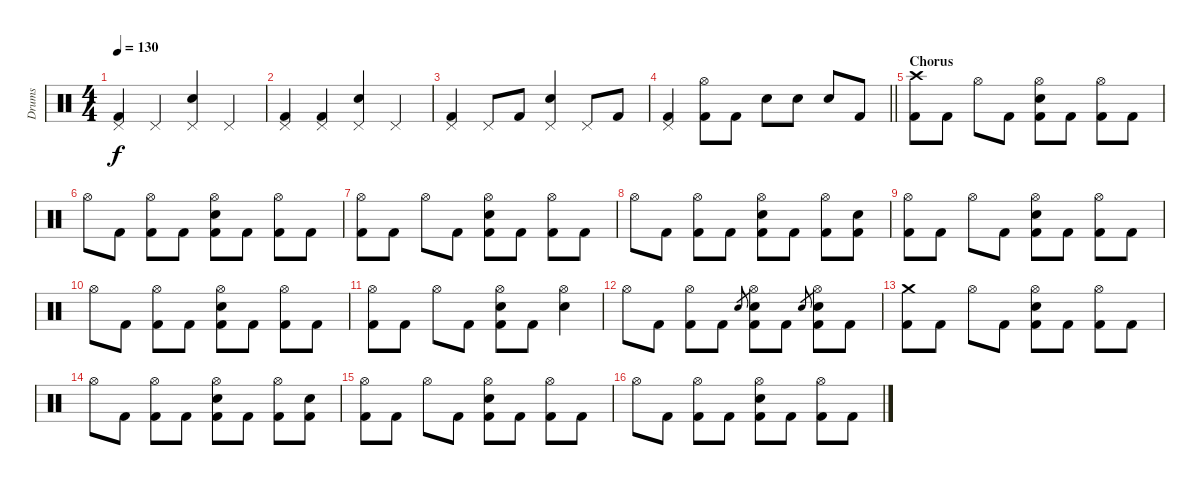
\track ("Drums" "Drums") {instrument percussion}
\staff {score}
\articulation defaults
\ts (4 4)
\tempo 130
\clef neutral
\ks c
("Pedal Hi-Hat (hit)" "Kick (hit) 2").4{dy f} "Pedal Hi-Hat (hit)".4 ("Pedal Hi-Hat (hit)" "Electric Snare (hit)").4 "Pedal Hi-Hat (hit)".4 |
("Pedal Hi-Hat (hit)" "Kick (hit) 2").4 ("Pedal Hi-Hat (hit)" "Kick (hit) 2").4 ("Pedal Hi-Hat (hit)" "Electric Snare (hit)").4 "Pedal Hi-Hat (hit)".4 |
("Pedal Hi-Hat (hit)" "Kick (hit) 2").4 "Pedal Hi-Hat (hit)".8 "Kick (hit) 2".8 ("Pedal Hi-Hat (hit)" "Electric Snare (hit)").4 "Pedal Hi-Hat (hit)".8 "Kick (hit) 2".8 |
\barLineRight lightlight
("Pedal Hi-Hat (hit)" "Kick (hit) 2").4 ("Hi-Hat (open)" "Kick (hit) 2").8 "Kick (hit) 2".8 "Electric Snare (hit)".8 "Electric Snare (hit)".8 "Electric Snare (hit)".8 "Kick (hit) 2".8 |
\section ("" "Chorus")
("Crash high (hit)" "Kick (hit) 2").8 "Kick (hit) 2".8 "Hi-Hat (open)".8 "Kick (hit) 2".8 ("Hi-Hat (open)" "Electric Snare (hit)" "Kick (hit) 2").8 "Kick (hit) 2".8 ("Hi-Hat (open)" "Kick (hit) 2").8 "Kick (hit) 2".8 |
"Hi-Hat (open)".8 "Kick (hit) 2".8 ("Hi-Hat (open)" "Kick (hit) 2").8 "Kick (hit) 2".8 ("Hi-Hat (open)" "Electric Snare (hit)" "Kick (hit) 2").8 "Kick (hit) 2".8 ("Hi-Hat (open)" "Kick (hit) 2").8 "Kick (hit) 2".8 |
("Hi-Hat (open)" "Kick (hit) 2").8 "Kick (hit) 2".8 "Hi-Hat (open)".8 "Kick (hit) 2".8 ("Hi-Hat (open)" "Electric Snare (hit)" "Kick (hit) 2").8 "Kick (hit) 2".8 ("Hi-Hat (open)" "Kick (hit) 2").8 "Kick (hit) 2".8 |
"Hi-Hat (open)".8 "Kick (hit) 2".8 ("Hi-Hat (open)" "Kick (hit) 2").8 "Kick (hit) 2".8 ("Hi-Hat (open)" "Electric Snare (hit)" "Kick (hit) 2").8 "Kick (hit) 2".8 ("Hi-Hat (open)" "Kick (hit) 2").8 ("Electric Snare (hit)" "Kick (hit) 2").8 |
("Hi-Hat (open)" "Kick (hit) 2").8 "Kick (hit) 2".8 "Hi-Hat (open)".8 "Kick (hit) 2".8 ("Hi-Hat (open)" "Electric Snare (hit)" "Kick (hit) 2").8 "Kick (hit) 2".8 ("Hi-Hat (open)" "Kick (hit) 2").8 "Kick (hit) 2".8 |
"Hi-Hat (open)".8 "Kick (hit) 2".8 ("Hi-Hat (open)" "Kick (hit) 2").8 "Kick (hit) 2".8 ("Hi-Hat (open)" "Electric Snare (hit)" "Kick (hit) 2").8 "Kick (hit) 2".8 ("Hi-Hat (open)" "Kick (hit) 2").8 "Kick (hit) 2".8 |
("Hi-Hat (open)" "Kick (hit) 2").8 "Kick (hit) 2".8 "Hi-Hat (open)".8 "Kick (hit) 2".8 ("Hi-Hat (open)" "Electric Snare (hit)" "Kick (hit) 2").8 "Kick (hit) 2".8 ("Hi-Hat (open)" "Electric Snare (hit)").4 |
"Hi-Hat (open)".8 "Kick (hit) 2".8 ("Hi-Hat (open)" "Kick (hit) 2").8 "Kick (hit) 2".8 "Electric Snare (hit)".8{gr} ("Hi-Hat (open)" "Electric Snare (hit)" "Kick (hit) 2").8 "Kick (hit) 2".8 "Electric Snare (hit)".8{gr} ("Hi-Hat (open)" "Electric Snare (hit)" "Kick (hit) 2").8 "Kick (hit) 2".8 |
("Crash medium (hit)" "Kick (hit) 2").8 "Kick (hit) 2".8 "Hi-Hat (open)".8 "Kick (hit) 2".8 ("Hi-Hat (open)" "Electric Snare (hit)" "Kick (hit) 2").8 "Kick (hit) 2".8 ("Hi-Hat (open)" "Kick (hit) 2").8 "Kick (hit) 2".8 |
"Hi-Hat (open)".8 "Kick (hit) 2".8 ("Hi-Hat (open)" "Kick (hit) 2").8 "Kick (hit) 2".8 ("Hi-Hat (open)" "Electric Snare (hit)" "Kick (hit) 2").8 "Kick (hit) 2".8 ("Hi-Hat (open)" "Kick (hit) 2").8 ("Electric Snare (hit)" "Kick (hit) 2").8 |
("Hi-Hat (open)" "Kick (hit) 2").8 "Kick (hit) 2".8 "Hi-Hat (open)".8 "Kick (hit) 2".8 ("Hi-Hat (open)" "Electric Snare (hit)" "Kick (hit) 2").8 "Kick (hit) 2".8 ("Hi-Hat (open)" "Kick (hit) 2").8 "Kick (hit) 2".8 |
"Hi-Hat (open)".8 "Kick (hit) 2".8 ("Hi-Hat (open)" "Kick (hit) 2").8 "Kick (hit) 2".8 ("Hi-Hat (open)" "Electric Snare (hit)" "Kick (hit) 2").8 "Kick (hit) 2".8 ("Hi-Hat (open)" "Kick (hit) 2").8 "Kick (hit) 2".8
